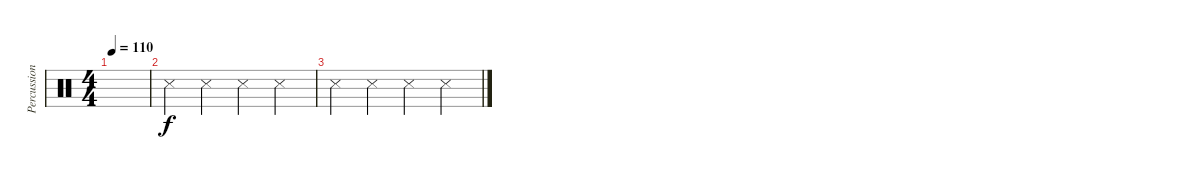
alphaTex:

\track ("Percussion" "Percussion") {instrument percussion}
\staff {score}
\articulation defaults
\ts (4 4)
\tempo 110
\clef neutral
\ks c
|
"Metronome (hit)".4 "Metronome (hit)".4 "Metronome (hit)".4 "Metronome (hit)".4 |
"Metronome (hit)".4 "Metronome (hit)".4 "Metronome (hit)".4 "Metronome (hit)".4
